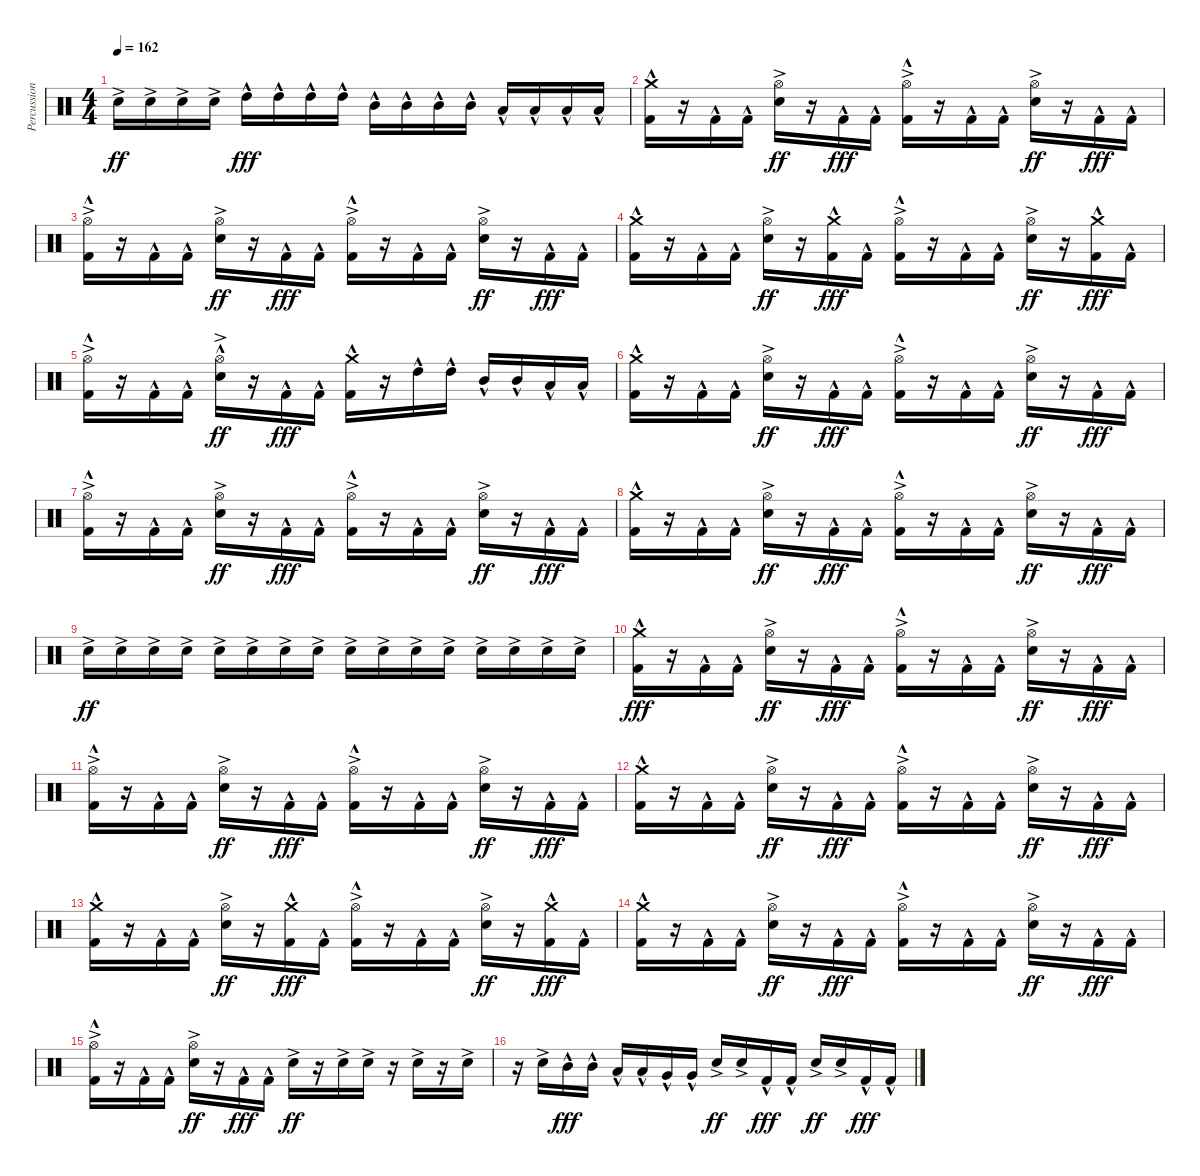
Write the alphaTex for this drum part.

\track ("Percussion" "Percussion") {instrument percussion}
\staff {score}
\articulation defaults
\ts (4 4)
\tempo 162
\clef neutral
\ks c "Snare (hit) 2"{ac}.16{dy ff} "Snare (hit) 2"{ac}.16 "Snare (hit) 2"{ac}.16 "Snare (hit) 2"{ac}.16 "High Tom (hit)"{hac}.16{dy fff} "High Tom (hit)"{hac}.16 "High Tom (hit)"{hac}.16 "High Tom (hit)"{hac}.16 "Mid Tom (hit)"{hac}.16 "Mid Tom (hit)"{hac}.16 "Mid Tom (hit)"{hac}.16 "Mid Tom (hit)"{hac}.16 "Low Tom (hit)"{hac}.16 "Low Tom (hit)"{hac}.16 "Low Tom (hit)"{hac}.16 "Low Tom (hit)"{hac}.16
|
("Crash medium (hit)"{hac} "Kick (hit) 2"{hac}).16 r.16 "Kick (hit) 2"{hac}.16 "Kick (hit) 2"{hac}.16 ("Hi-Hat (open)"{ac} "Snare (hit) 2"{ac}).16{dy ff} r.16 "Kick (hit) 2"{hac}.16{dy fff} "Kick (hit) 2"{hac}.16 ("Hi-Hat (open)"{ac} "Kick (hit) 2"{hac}).16 r.16 "Kick (hit) 2"{hac}.16 "Kick (hit) 2"{hac}.16 ("Hi-Hat (open)"{ac} "Snare (hit) 2"{ac}).16{dy ff} r.16 "Kick (hit) 2"{hac}.16{dy fff} "Kick (hit) 2"{hac}.16 |
("Hi-Hat (open)"{ac} "Kick (hit) 2"{hac}).16 r.16 "Kick (hit) 2"{hac}.16 "Kick (hit) 2"{hac}.16 ("Hi-Hat (open)"{ac} "Snare (hit) 2"{ac}).16{dy ff} r.16 "Kick (hit) 2"{hac}.16{dy fff} "Kick (hit) 2"{hac}.16 ("Hi-Hat (open)"{ac} "Kick (hit) 2"{hac}).16 r.16 "Kick (hit) 2"{hac}.16 "Kick (hit) 2"{hac}.16 ("Hi-Hat (open)"{ac} "Snare (hit) 2"{ac}).16{dy ff} r.16 "Kick (hit) 2"{hac}.16{dy fff} "Kick (hit) 2"{hac}.16 |
("Crash medium (hit)"{hac} "Kick (hit) 2"{hac}).16 r.16 "Kick (hit) 2"{hac}.16 "Kick (hit) 2"{hac}.16 ("Hi-Hat (open)"{ac} "Snare (hit) 2"{ac}).16{dy ff} r.16 ("Crash medium (hit)"{hac} "Kick (hit) 2"{hac}).16{dy fff} "Kick (hit) 2"{hac}.16 ("Hi-Hat (open)"{ac} "Kick (hit) 2"{hac}).16 r.16 "Kick (hit) 2"{hac}.16 "Kick (hit) 2"{hac}.16 ("Hi-Hat (open)"{ac} "Snare (hit) 2"{ac}).16{dy ff} r.16 ("Crash medium (hit)"{hac} "Kick (hit) 2"{hac}).16{dy fff} "Kick (hit) 2"{hac}.16 |
("Hi-Hat (open)"{ac} "Kick (hit) 2"{hac}).16 r.16 "Kick (hit) 2"{hac}.16 "Kick (hit) 2"{hac}.16 ("Hi-Hat (open)"{hac} "Snare (hit) 2"{ac}).16{dy ff} r.16 "Kick (hit) 2"{hac}.16{dy fff} "Kick (hit) 2"{hac}.16 ("Crash medium (hit)"{hac} "Kick (hit) 2"{hac}).16 r.16 "High Tom (hit)"{hac}.16 "High Tom (hit)"{hac}.16 "Mid Tom (hit)"{hac}.16 "Mid Tom (hit)"{hac}.16 "Low Tom (hit)"{hac}.16 "Low Tom (hit)"{hac}.16 |
("Crash medium (hit)"{hac} "Kick (hit) 2"{hac}).16 r.16 "Kick (hit) 2"{hac}.16 "Kick (hit) 2"{hac}.16 ("Hi-Hat (open)"{ac} "Snare (hit) 2"{ac}).16{dy ff} r.16 "Kick (hit) 2"{hac}.16{dy fff} "Kick (hit) 2"{hac}.16 ("Hi-Hat (open)"{ac} "Kick (hit) 2"{hac}).16 r.16 "Kick (hit) 2"{hac}.16 "Kick (hit) 2"{hac}.16 ("Hi-Hat (open)"{ac} "Snare (hit) 2"{ac}).16{dy ff} r.16 "Kick (hit) 2"{hac}.16{dy fff} "Kick (hit) 2"{hac}.16 |
("Hi-Hat (open)"{ac} "Kick (hit) 2"{hac}).16 r.16 "Kick (hit) 2"{hac}.16 "Kick (hit) 2"{hac}.16 ("Hi-Hat (open)"{ac} "Snare (hit) 2"{ac}).16{dy ff} r.16 "Kick (hit) 2"{hac}.16{dy fff} "Kick (hit) 2"{hac}.16 ("Hi-Hat (open)"{ac} "Kick (hit) 2"{hac}).16 r.16 "Kick (hit) 2"{hac}.16 "Kick (hit) 2"{hac}.16 ("Hi-Hat (open)"{ac} "Snare (hit) 2"{ac}).16{dy ff} r.16 "Kick (hit) 2"{hac}.16{dy fff} "Kick (hit) 2"{hac}.16 |
("Crash medium (hit)"{hac} "Kick (hit) 2"{hac}).16 r.16 "Kick (hit) 2"{hac}.16 "Kick (hit) 2"{hac}.16 ("Hi-Hat (open)"{ac} "Snare (hit) 2"{ac}).16{dy ff} r.16 "Kick (hit) 2"{hac}.16{dy fff} "Kick (hit) 2"{hac}.16 ("Hi-Hat (open)"{ac} "Kick (hit) 2"{hac}).16 r.16 "Kick (hit) 2"{hac}.16 "Kick (hit) 2"{hac}.16 ("Hi-Hat (open)"{ac} "Snare (hit) 2"{ac}).16{dy ff} r.16 "Kick (hit) 2"{hac}.16{dy fff} "Kick (hit) 2"{hac}.16 |
"Snare (hit) 2"{ac}.16{dy ff} "Snare (hit) 2"{ac}.16 "Snare (hit) 2"{ac}.16 "Snare (hit) 2"{ac}.16 "Snare (hit) 2"{ac}.16 "Snare (hit) 2"{ac}.16 "Snare (hit) 2"{ac}.16 "Snare (hit) 2"{ac}.16 "Snare (hit) 2"{ac}.16 "Snare (hit) 2"{ac}.16 "Snare (hit) 2"{ac}.16 "Snare (hit) 2"{ac}.16 "Snare (hit) 2"{ac}.16 "Snare (hit) 2"{ac}.16 "Snare (hit) 2"{ac}.16 "Snare (hit) 2"{ac}.16 |
("Crash medium (hit)"{hac} "Kick (hit) 2"{hac}).16{dy fff} r.16 "Kick (hit) 2"{hac}.16 "Kick (hit) 2"{hac}.16 ("Hi-Hat (open)"{ac} "Snare (hit) 2"{ac}).16{dy ff} r.16 "Kick (hit) 2"{hac}.16{dy fff} "Kick (hit) 2"{hac}.16 ("Hi-Hat (open)"{ac} "Kick (hit) 2"{hac}).16 r.16 "Kick (hit) 2"{hac}.16 "Kick (hit) 2"{hac}.16 ("Hi-Hat (open)"{ac} "Snare (hit) 2"{ac}).16{dy ff} r.16 "Kick (hit) 2"{hac}.16{dy fff} "Kick (hit) 2"{hac}.16 |
("Hi-Hat (open)"{ac} "Kick (hit) 2"{hac}).16 r.16 "Kick (hit) 2"{hac}.16 "Kick (hit) 2"{hac}.16 ("Hi-Hat (open)"{ac} "Snare (hit) 2"{ac}).16{dy ff} r.16 "Kick (hit) 2"{hac}.16{dy fff} "Kick (hit) 2"{hac}.16 ("Hi-Hat (open)"{ac} "Kick (hit) 2"{hac}).16 r.16 "Kick (hit) 2"{hac}.16 "Kick (hit) 2"{hac}.16 ("Hi-Hat (open)"{ac} "Snare (hit) 2"{ac}).16{dy ff} r.16 "Kick (hit) 2"{hac}.16{dy fff} "Kick (hit) 2"{hac}.16 |
("Crash medium (hit)"{hac} "Kick (hit) 2"{hac}).16 r.16 "Kick (hit) 2"{hac}.16 "Kick (hit) 2"{hac}.16 ("Hi-Hat (open)"{ac} "Snare (hit) 2"{ac}).16{dy ff} r.16 "Kick (hit) 2"{hac}.16{dy fff} "Kick (hit) 2"{hac}.16 ("Hi-Hat (open)"{ac} "Kick (hit) 2"{hac}).16 r.16 "Kick (hit) 2"{hac}.16 "Kick (hit) 2"{hac}.16 ("Hi-Hat (open)"{ac} "Snare (hit) 2"{ac}).16{dy ff} r.16 "Kick (hit) 2"{hac}.16{dy fff} "Kick (hit) 2"{hac}.16 |
("Crash medium (hit)"{hac} "Kick (hit) 2"{hac}).16 r.16 "Kick (hit) 2"{hac}.16 "Kick (hit) 2"{hac}.16 ("Hi-Hat (open)"{ac} "Snare (hit) 2"{ac}).16{dy ff} r.16 ("Crash medium (hit)"{hac} "Kick (hit) 2"{hac}).16{dy fff} "Kick (hit) 2"{hac}.16 ("Hi-Hat (open)"{ac} "Kick (hit) 2"{hac}).16 r.16 "Kick (hit) 2"{hac}.16 "Kick (hit) 2"{hac}.16 ("Hi-Hat (open)"{ac} "Snare (hit) 2"{ac}).16{dy ff} r.16 ("Crash medium (hit)"{hac} "Kick (hit) 2"{hac}).16{dy fff} "Kick (hit) 2"{hac}.16 |
("Crash medium (hit)"{hac} "Kick (hit) 2"{hac}).16 r.16 "Kick (hit) 2"{hac}.16 "Kick (hit) 2"{hac}.16 ("Hi-Hat (open)"{ac} "Snare (hit) 2"{ac}).16{dy ff} r.16 "Kick (hit) 2"{hac}.16{dy fff} "Kick (hit) 2"{hac}.16 ("Hi-Hat (open)"{ac} "Kick (hit) 2"{hac}).16 r.16 "Kick (hit) 2"{hac}.16 "Kick (hit) 2"{hac}.16 ("Hi-Hat (open)"{ac} "Snare (hit) 2"{ac}).16{dy ff} r.16 "Kick (hit) 2"{hac}.16{dy fff} "Kick (hit) 2"{hac}.16 |
("Hi-Hat (open)"{ac} "Kick (hit) 2"{hac}).16 r.16 "Kick (hit) 2"{hac}.16 "Kick (hit) 2"{hac}.16 ("Hi-Hat (open)"{ac} "Snare (hit) 2"{ac}).16{dy ff} r.16 "Kick (hit) 2"{hac}.16{dy fff} "Kick (hit) 2"{hac}.16 "Snare (hit) 2"{ac}.16{dy ff} r.16 "Snare (hit) 2"{ac}.16 "Snare (hit) 2"{ac}.16 r.16 "Snare (hit) 2"{ac}.16 r.16 "Snare (hit) 2"{ac}.16 |
r.16 "Snare (hit) 2"{ac}.16 "Mid Tom (hit)"{hac}.16{dy fff} "Mid Tom (hit)"{hac}.16 "Low Tom (hit)"{hac}.16 "Low Tom (hit)"{hac}.16 "Very Low Tom (hit)"{hac}.16 "Very Low Tom (hit)"{hac}.16 "Snare (hit) 2"{ac}.16{dy ff} "Snare (hit) 2"{ac}.16 "Kick (hit) 2"{hac}.16{dy fff} "Kick (hit) 2"{hac}.16 "Snare (hit) 2"{ac}.16{dy ff} "Snare (hit) 2"{ac}.16 "Kick (hit) 2"{hac}.16{dy fff} "Kick (hit) 2"{hac}.16
